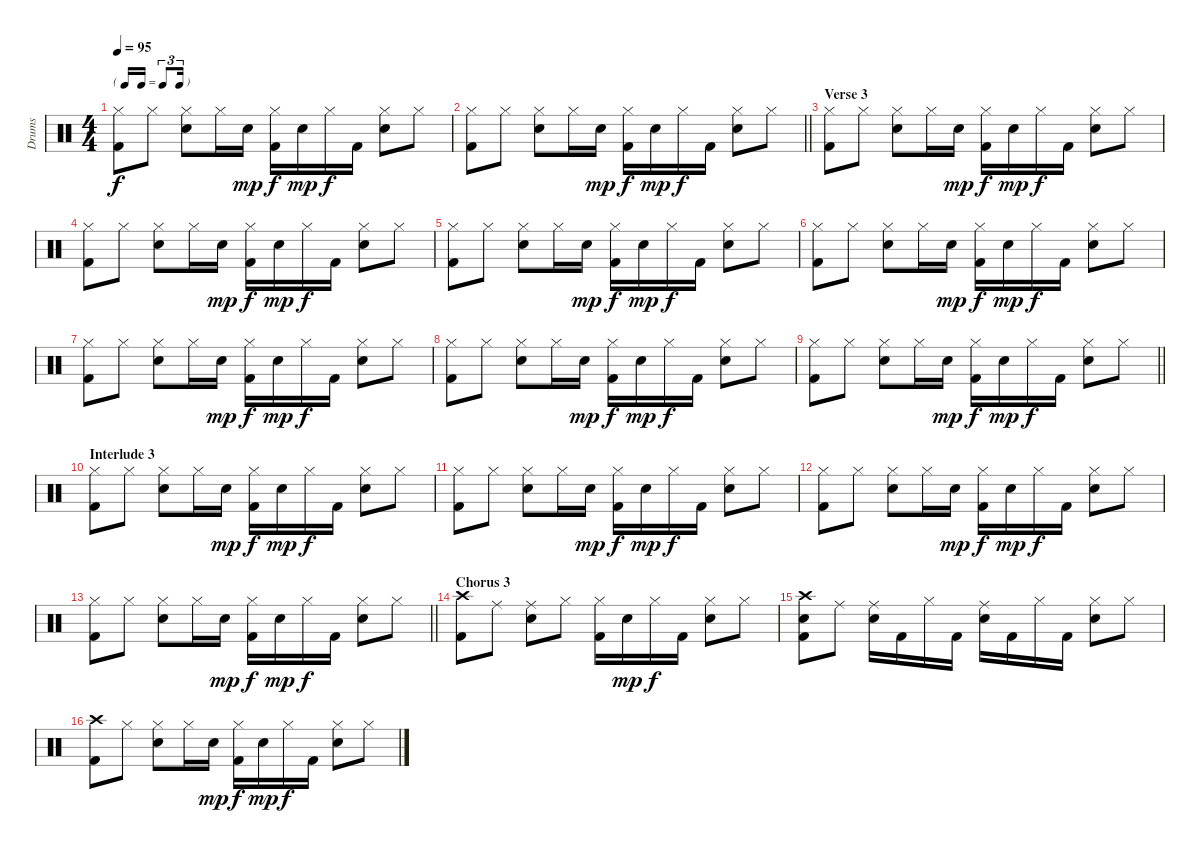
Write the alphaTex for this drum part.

\track ("Drums" "Drums") {instrument percussion}
\staff {score}
\articulation defaults
\ts (4 4)
\tf triplet16th
\tempo 95
\clef neutral
\ks c
("Hi-Hat (closed)" "Kick (hit) 2").8{dy f} "Hi-Hat (closed)".8 ("Hi-Hat (closed)" "Snare (hit) 2").8 "Hi-Hat (closed)".16 "Snare (hit) 2".16{dy mp} ("Hi-Hat (closed)" "Kick (hit) 2").16{dy f} "Snare (hit) 2".16{dy mp} "Hi-Hat (closed)".16{dy f} "Kick (hit) 2".16 ("Hi-Hat (closed)" "Snare (hit) 2").8 "Hi-Hat (closed)".8 |
\barLineRight lightlight
("Hi-Hat (closed)" "Kick (hit) 2").8 "Hi-Hat (closed)".8 ("Hi-Hat (closed)" "Snare (hit) 2").8 "Hi-Hat (closed)".16 "Snare (hit) 2".16{dy mp} ("Hi-Hat (closed)" "Kick (hit) 2").16{dy f} "Snare (hit) 2".16{dy mp} "Hi-Hat (closed)".16{dy f} "Kick (hit) 2".16 ("Hi-Hat (closed)" "Snare (hit) 2").8 "Hi-Hat (closed)".8 |
\section ("" "Verse 3")
("Hi-Hat (closed)" "Kick (hit) 2").8 "Hi-Hat (closed)".8 ("Hi-Hat (closed)" "Snare (hit) 2").8 "Hi-Hat (closed)".16 "Snare (hit) 2".16{dy mp} ("Hi-Hat (closed)" "Kick (hit) 2").16{dy f} "Snare (hit) 2".16{dy mp} "Hi-Hat (closed)".16{dy f} "Kick (hit) 2".16 ("Hi-Hat (closed)" "Snare (hit) 2").8 "Hi-Hat (closed)".8 |
("Hi-Hat (closed)" "Kick (hit) 2").8 "Hi-Hat (closed)".8 ("Hi-Hat (closed)" "Snare (hit) 2").8 "Hi-Hat (closed)".16 "Snare (hit) 2".16{dy mp} ("Hi-Hat (closed)" "Kick (hit) 2").16{dy f} "Snare (hit) 2".16{dy mp} "Hi-Hat (closed)".16{dy f} "Kick (hit) 2".16 ("Hi-Hat (closed)" "Snare (hit) 2").8 "Hi-Hat (closed)".8 |
("Hi-Hat (closed)" "Kick (hit) 2").8 "Hi-Hat (closed)".8 ("Hi-Hat (closed)" "Snare (hit) 2").8 "Hi-Hat (closed)".16 "Snare (hit) 2".16{dy mp} ("Hi-Hat (closed)" "Kick (hit) 2").16{dy f} "Snare (hit) 2".16{dy mp} "Hi-Hat (closed)".16{dy f} "Kick (hit) 2".16 ("Hi-Hat (closed)" "Snare (hit) 2").8 "Hi-Hat (closed)".8 |
("Hi-Hat (closed)" "Kick (hit) 2").8 "Hi-Hat (closed)".8 ("Hi-Hat (closed)" "Snare (hit) 2").8 "Hi-Hat (closed)".16 "Snare (hit) 2".16{dy mp} ("Hi-Hat (closed)" "Kick (hit) 2").16{dy f} "Snare (hit) 2".16{dy mp} "Hi-Hat (closed)".16{dy f} "Kick (hit) 2".16 ("Hi-Hat (closed)" "Snare (hit) 2").8 "Hi-Hat (closed)".8 |
("Hi-Hat (closed)" "Kick (hit) 2").8 "Hi-Hat (closed)".8 ("Hi-Hat (closed)" "Snare (hit) 2").8 "Hi-Hat (closed)".16 "Snare (hit) 2".16{dy mp} ("Hi-Hat (closed)" "Kick (hit) 2").16{dy f} "Snare (hit) 2".16{dy mp} "Hi-Hat (closed)".16{dy f} "Kick (hit) 2".16 ("Hi-Hat (closed)" "Snare (hit) 2").8 "Hi-Hat (closed)".8 |
("Hi-Hat (closed)" "Kick (hit) 2").8 "Hi-Hat (closed)".8 ("Hi-Hat (closed)" "Snare (hit) 2").8 "Hi-Hat (closed)".16 "Snare (hit) 2".16{dy mp} ("Hi-Hat (closed)" "Kick (hit) 2").16{dy f} "Snare (hit) 2".16{dy mp} "Hi-Hat (closed)".16{dy f} "Kick (hit) 2".16 ("Hi-Hat (closed)" "Snare (hit) 2").8 "Hi-Hat (closed)".8 |
\barLineRight lightlight
("Hi-Hat (closed)" "Kick (hit) 2").8 "Hi-Hat (closed)".8 ("Hi-Hat (closed)" "Snare (hit) 2").8 "Hi-Hat (closed)".16 "Snare (hit) 2".16{dy mp} ("Hi-Hat (closed)" "Kick (hit) 2").16{dy f} "Snare (hit) 2".16{dy mp} "Hi-Hat (closed)".16{dy f} "Kick (hit) 2".16 ("Hi-Hat (closed)" "Snare (hit) 2").8 "Hi-Hat (closed)".8 |
\section ("" "Interlude 3")
("Hi-Hat (closed)" "Kick (hit) 2").8 "Hi-Hat (closed)".8 ("Hi-Hat (closed)" "Snare (hit) 2").8 "Hi-Hat (closed)".16 "Snare (hit) 2".16{dy mp} ("Hi-Hat (closed)" "Kick (hit) 2").16{dy f} "Snare (hit) 2".16{dy mp} "Hi-Hat (closed)".16{dy f} "Kick (hit) 2".16 ("Hi-Hat (closed)" "Snare (hit) 2").8 "Hi-Hat (closed)".8 |
("Hi-Hat (closed)" "Kick (hit) 2").8 "Hi-Hat (closed)".8 ("Hi-Hat (closed)" "Snare (hit) 2").8 "Hi-Hat (closed)".16 "Snare (hit) 2".16{dy mp} ("Hi-Hat (closed)" "Kick (hit) 2").16{dy f} "Snare (hit) 2".16{dy mp} "Hi-Hat (closed)".16{dy f} "Kick (hit) 2".16 ("Hi-Hat (closed)" "Snare (hit) 2").8 "Hi-Hat (closed)".8 |
("Hi-Hat (closed)" "Kick (hit) 2").8 "Hi-Hat (closed)".8 ("Hi-Hat (closed)" "Snare (hit) 2").8 "Hi-Hat (closed)".16 "Snare (hit) 2".16{dy mp} ("Hi-Hat (closed)" "Kick (hit) 2").16{dy f} "Snare (hit) 2".16{dy mp} "Hi-Hat (closed)".16{dy f} "Kick (hit) 2".16 ("Hi-Hat (closed)" "Snare (hit) 2").8 "Hi-Hat (closed)".8 |
\barLineRight lightlight
("Hi-Hat (closed)" "Kick (hit) 2").8 "Hi-Hat (closed)".8 ("Hi-Hat (closed)" "Snare (hit) 2").8 "Hi-Hat (closed)".16 "Snare (hit) 2".16{dy mp} ("Hi-Hat (closed)" "Kick (hit) 2").16{dy f} "Snare (hit) 2".16{dy mp} "Hi-Hat (closed)".16{dy f} "Kick (hit) 2".16 ("Hi-Hat (closed)" "Snare (hit) 2").8 "Hi-Hat (closed)".8 |
\section ("" "Chorus 3")
("Crash high (hit)" "Kick (hit) 2").8 "Ride (middle)".8 ("Ride (middle)" "Snare (hit) 2").8 "Hi-Hat (closed)".8 ("Hi-Hat (closed)" "Kick (hit) 2").16 "Snare (hit) 2".16{dy mp} "Hi-Hat (closed)".16{dy f} "Kick (hit) 2".16 ("Hi-Hat (closed)" "Snare (hit) 2").8 "Hi-Hat (closed)".8 |
("Crash high (hit)" "Snare (hit) 2" "Kick (hit) 2").8 "Ride (middle)".8 ("Ride (middle)" "Snare (hit) 2").16 "Kick (hit) 2".16 "Hi-Hat (closed)".16 "Kick (hit) 2".16 ("Ride (middle)" "Snare (hit) 2").16 "Kick (hit) 2".16 "Hi-Hat (closed)".16 "Kick (hit) 2".16 ("Hi-Hat (closed)" "Snare (hit) 2").8 "Hi-Hat (closed)".8 |
("Crash high (hit)" "Kick (hit) 2").8 "Hi-Hat (closed)".8 ("Hi-Hat (closed)" "Snare (hit) 2").8 "Hi-Hat (closed)".16 "Snare (hit) 2".16{dy mp} ("Hi-Hat (closed)" "Kick (hit) 2").16{dy f} "Snare (hit) 2".16{dy mp} "Hi-Hat (closed)".16{dy f} "Kick (hit) 2".16 ("Hi-Hat (closed)" "Snare (hit) 2").8 "Hi-Hat (closed)".8
